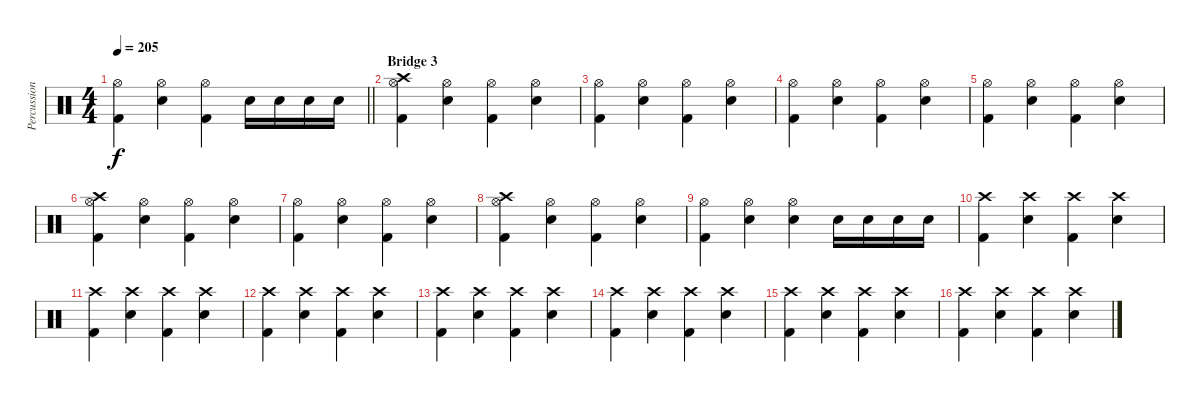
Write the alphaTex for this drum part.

\track ("Percussion" "Percussion") {instrument percussion}
\staff {score}
\articulation defaults
\ts (4 4)
\tempo 205
\clef neutral
\barLineRight lightlight
\ks c
("Hi-Hat (open)" "Kick (hit) 2").4{dy f} ("Electric Snare (hit)" "Hi-Hat (open)").4 ("Hi-Hat (open)" "Kick (hit) 2").4 "Electric Snare (hit)".16 "Electric Snare (hit)".16 "Electric Snare (hit)".16 "Electric Snare (hit)".16 |
\section ("" "Bridge 3")
("Crash high (hit)" "Hi-Hat (open)" "Kick (hit) 2").4 ("Electric Snare (hit)" "Hi-Hat (open)").4 ("Hi-Hat (open)" "Kick (hit) 2").4 ("Electric Snare (hit)" "Hi-Hat (open)").4 |
("Hi-Hat (open)" "Kick (hit) 2").4 ("Electric Snare (hit)" "Hi-Hat (open)").4 ("Hi-Hat (open)" "Kick (hit) 2").4 ("Electric Snare (hit)" "Hi-Hat (open)").4 |
("Hi-Hat (open)" "Kick (hit) 2").4 ("Electric Snare (hit)" "Hi-Hat (open)").4 ("Hi-Hat (open)" "Kick (hit) 2").4 ("Electric Snare (hit)" "Hi-Hat (open)").4 |
("Hi-Hat (open)" "Kick (hit) 2").4 ("Electric Snare (hit)" "Hi-Hat (open)").4 ("Hi-Hat (open)" "Kick (hit) 2").4 ("Electric Snare (hit)" "Hi-Hat (open)").4 |
("Crash high (hit)" "Hi-Hat (open)" "Kick (hit) 2").4 ("Electric Snare (hit)" "Hi-Hat (open)").4 ("Hi-Hat (open)" "Kick (hit) 2").4 ("Electric Snare (hit)" "Hi-Hat (open)").4 |
("Hi-Hat (open)" "Kick (hit) 2").4 ("Electric Snare (hit)" "Hi-Hat (open)").4 ("Hi-Hat (open)" "Kick (hit) 2").4 ("Electric Snare (hit)" "Hi-Hat (open)").4 |
("Crash high (hit)" "Hi-Hat (open)" "Kick (hit) 2").4 ("Electric Snare (hit)" "Hi-Hat (open)").4 ("Hi-Hat (open)" "Kick (hit) 2").4 ("Electric Snare (hit)" "Hi-Hat (open)").4 |
("Hi-Hat (open)" "Kick (hit) 2").4 ("Electric Snare (hit)" "Hi-Hat (open)").4 ("Electric Snare (hit)" "Hi-Hat (open)").4 "Electric Snare (hit)".16 "Electric Snare (hit)".16 "Electric Snare (hit)".16 "Electric Snare (hit)".16 |
("Crash high (hit)" "Kick (hit) 2").4 ("Crash high (hit)" "Electric Snare (hit)").4 ("Crash high (hit)" "Kick (hit) 2").4 ("Crash high (hit)" "Electric Snare (hit)").4 |
("Crash high (hit)" "Kick (hit) 2").4 ("Crash high (hit)" "Electric Snare (hit)").4 ("Crash high (hit)" "Kick (hit) 2").4 ("Crash high (hit)" "Electric Snare (hit)").4 |
("Crash high (hit)" "Kick (hit) 2").4 ("Crash high (hit)" "Electric Snare (hit)").4 ("Crash high (hit)" "Kick (hit) 2").4 ("Crash high (hit)" "Electric Snare (hit)").4 |
("Crash high (hit)" "Kick (hit) 2").4 ("Crash high (hit)" "Electric Snare (hit)").4 ("Crash high (hit)" "Kick (hit) 2").4 ("Crash high (hit)" "Electric Snare (hit)").4 |
("Crash high (hit)" "Kick (hit) 2").4 ("Crash high (hit)" "Electric Snare (hit)").4 ("Crash high (hit)" "Kick (hit) 2").4 ("Crash high (hit)" "Electric Snare (hit)").4 |
("Crash high (hit)" "Kick (hit) 2").4 ("Crash high (hit)" "Electric Snare (hit)").4 ("Crash high (hit)" "Kick (hit) 2").4 ("Crash high (hit)" "Electric Snare (hit)").4 |
("Crash high (hit)" "Kick (hit) 2").4 ("Crash high (hit)" "Electric Snare (hit)").4 ("Crash high (hit)" "Kick (hit) 2").4 ("Crash high (hit)" "Electric Snare (hit)").4
